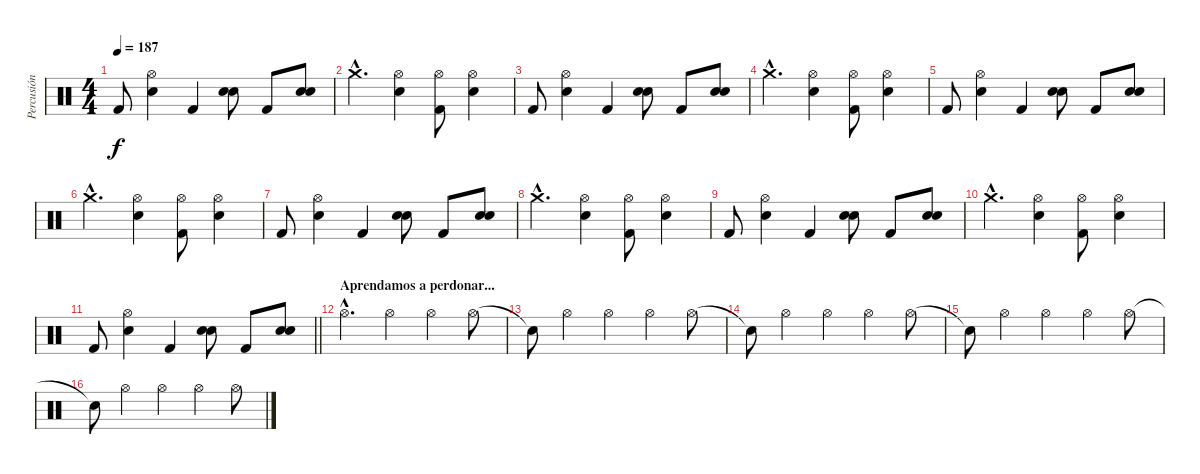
\track ("Percusión" "Percusión") {instrument percussion}
\staff {score}
\articulation defaults
\ts (4 4)
\tempo 187
\clef neutral
\ks c "Kick (hit) 2".8{dy f}
("Hi-Hat (open)" "Snare (hit) 2").4 "Kick (hit) 2".4 ("Snare (hit) 2" "Snare (hit) 2").8 "Kick (hit) 2".8 ("Snare (hit) 2" "Snare (hit) 2").8 |
"Crash medium (hit)"{hac}.4{d} ("Hi-Hat (open)" "Snare (hit) 2").4 ("Hi-Hat (open)" "Kick (hit) 2").8 ("Hi-Hat (open)" "Snare (hit) 2").4 |
"Kick (hit) 2".8 ("Hi-Hat (open)" "Snare (hit) 2").4 "Kick (hit) 2".4 ("Snare (hit) 2" "Snare (hit) 2").8 "Kick (hit) 2".8 ("Snare (hit) 2" "Snare (hit) 2").8 |
"Crash medium (hit)"{hac}.4{d} ("Hi-Hat (open)" "Snare (hit) 2").4 ("Hi-Hat (open)" "Kick (hit) 2").8 ("Hi-Hat (open)" "Snare (hit) 2").4 |
"Kick (hit) 2".8 ("Hi-Hat (open)" "Snare (hit) 2").4 "Kick (hit) 2".4 ("Snare (hit) 2" "Snare (hit) 2").8 "Kick (hit) 2".8 ("Snare (hit) 2" "Snare (hit) 2").8 |
"Crash medium (hit)"{hac}.4{d} ("Hi-Hat (open)" "Snare (hit) 2").4 ("Hi-Hat (open)" "Kick (hit) 2").8 ("Hi-Hat (open)" "Snare (hit) 2").4 |
"Kick (hit) 2".8 ("Hi-Hat (open)" "Snare (hit) 2").4 "Kick (hit) 2".4 ("Snare (hit) 2" "Snare (hit) 2").8 "Kick (hit) 2".8 ("Snare (hit) 2" "Snare (hit) 2").8 |
"Crash medium (hit)"{hac}.4{d} ("Hi-Hat (open)" "Snare (hit) 2").4 ("Hi-Hat (open)" "Kick (hit) 2").8 ("Hi-Hat (open)" "Snare (hit) 2").4 |
"Kick (hit) 2".8 ("Hi-Hat (open)" "Snare (hit) 2").4 "Kick (hit) 2".4 ("Snare (hit) 2" "Snare (hit) 2").8 "Kick (hit) 2".8 ("Snare (hit) 2" "Snare (hit) 2").8 |
"Crash medium (hit)"{hac}.4{d} ("Hi-Hat (open)" "Snare (hit) 2").4 ("Hi-Hat (open)" "Kick (hit) 2").8 ("Hi-Hat (open)" "Snare (hit) 2").4 |
\barLineRight lightlight "Kick (hit) 2".8
("Hi-Hat (open)" "Snare (hit) 2").4 "Kick (hit) 2".4 ("Snare (hit) 2" "Snare (hit) 2").8 "Kick (hit) 2".8 ("Snare (hit) 2" "Snare (hit) 2").8 |
\section ("" "Aprendamos a perdonar...")
"Hi-Hat (open)"{hac}.4{d} "Hi-Hat (open)".4 "Hi-Hat (open)".4 "Hi-Hat (open)".8 |
"Snare (hit)"{t}.8 "Hi-Hat (open)".4 "Hi-Hat (open)".4 "Hi-Hat (open)".4 "Hi-Hat (open)".8 |
"Snare (hit)"{t}.8 "Hi-Hat (open)".4 "Hi-Hat (open)".4 "Hi-Hat (open)".4 "Hi-Hat (open)".8 |
"Snare (hit)"{t}.8 "Hi-Hat (open)".4 "Hi-Hat (open)".4 "Hi-Hat (open)".4 "Hi-Hat (open)".8 |
"Snare (hit)"{t}.8 "Hi-Hat (open)".4 "Hi-Hat (open)".4 "Hi-Hat (open)".4 "Hi-Hat (open)".8
